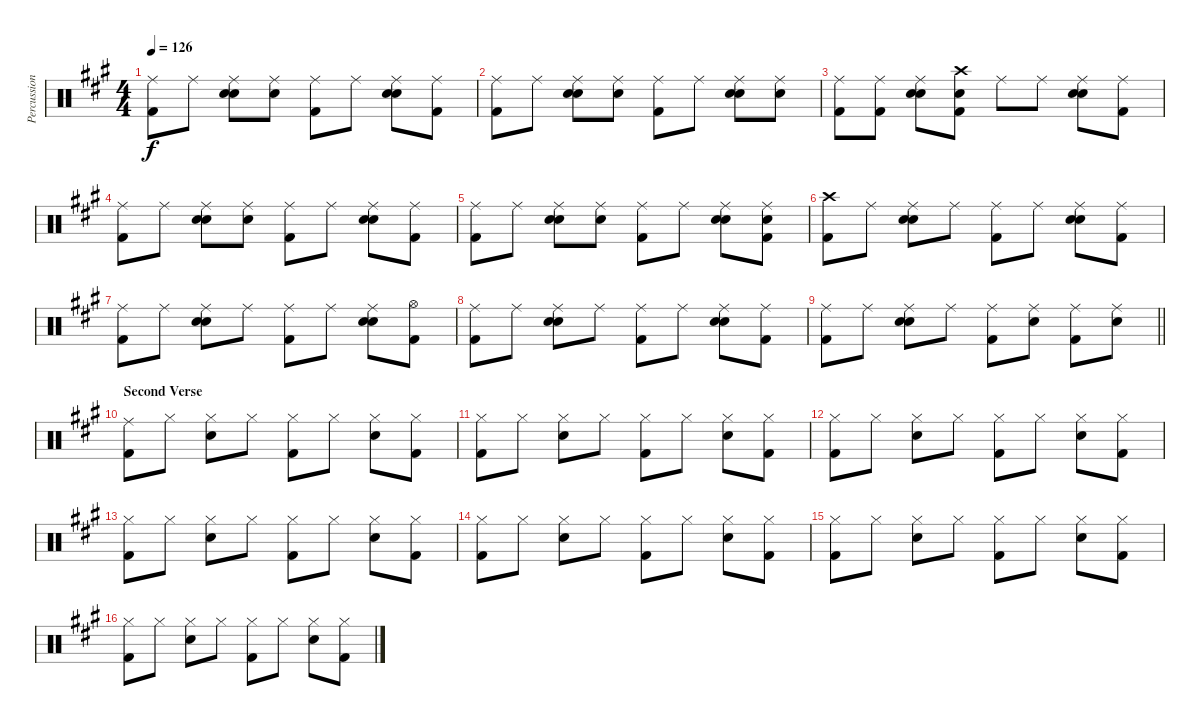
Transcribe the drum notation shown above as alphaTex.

\track ("Percussion" "Percussion") {instrument percussion}
\staff {score}
\articulation defaults
\ts (4 4)
\tempo 126
\clef neutral
\ks a
("Ride (middle)" "Kick (hit) 2").8{dy f} "Ride (middle)".8 ("Ride (middle)" "Hand Clap (hit)" "Snare (hit) 2").8 ("Ride (middle)" "Hand Clap (hit)").8 ("Ride (middle)" "Kick (hit) 2").8 "Ride (middle)".8 ("Ride (middle)" "Hand Clap (hit)" "Snare (hit) 2").8 ("Ride (middle)" "Kick (hit) 2").8 |
("Ride (middle)" "Kick (hit) 2").8 "Ride (middle)".8 ("Ride (middle)" "Hand Clap (hit)" "Snare (hit) 2").8 ("Ride (middle)" "Hand Clap (hit)").8 ("Ride (middle)" "Kick (hit) 2").8 "Ride (middle)".8 ("Ride (middle)" "Hand Clap (hit)" "Snare (hit) 2").8 ("Ride (middle)" "Snare (hit) 2").8 |
("Ride (middle)" "Kick (hit) 2").8 ("Ride (middle)" "Kick (hit) 2").8 ("Ride (middle)" "Hand Clap (hit)" "Snare (hit) 2").8 ("Crash high (hit)" "Hand Clap (hit)" "Kick (hit) 2").8 "Ride (middle)".8 "Ride (middle)".8 ("Ride (middle)" "Hand Clap (hit)" "Snare (hit) 2").8 ("Ride (middle)" "Kick (hit) 2").8 |
("Ride (middle)" "Kick (hit) 2").8 "Ride (middle)".8 ("Ride (middle)" "Hand Clap (hit)" "Snare (hit) 2").8 ("Ride (middle)" "Hand Clap (hit)").8 ("Ride (middle)" "Kick (hit) 2").8 "Ride (middle)".8 ("Ride (middle)" "Hand Clap (hit)" "Snare (hit) 2").8 ("Ride (middle)" "Kick (hit) 2").8 |
("Ride (middle)" "Kick (hit) 2").8 "Ride (middle)".8 ("Ride (middle)" "Hand Clap (hit)" "Snare (hit) 2").8 ("Ride (middle)" "Hand Clap (hit)").8 ("Ride (middle)" "Kick (hit) 2").8 "Ride (middle)".8 ("Ride (middle)" "Hand Clap (hit)" "Snare (hit) 2").8 ("Ride (middle)" "Hand Clap (hit)" "Kick (hit) 2").8 |
("Crash high (hit)" "Kick (hit) 2").8 "Ride (middle)".8 ("Ride (middle)" "Hand Clap (hit)" "Snare (hit) 2").8 "Ride (middle)".8 ("Ride (middle)" "Kick (hit) 2").8 "Ride (middle)".8 ("Ride (middle)" "Hand Clap (hit)" "Snare (hit) 2").8 ("Ride (middle)" "Kick (hit) 2").8 |
("Ride (middle)" "Kick (hit) 2").8 "Ride (middle)".8 ("Ride (middle)" "Hand Clap (hit)" "Snare (hit) 2").8 "Ride (middle)".8 ("Ride (middle)" "Kick (hit) 2").8 "Ride (middle)".8 ("Ride (middle)" "Hand Clap (hit)" "Snare (hit) 2").8 ("Hi-Hat (open)" "Kick (hit) 2").8 |
("Ride (middle)" "Kick (hit) 2").8 "Ride (middle)".8 ("Ride (middle)" "Hand Clap (hit)" "Snare (hit) 2").8 "Ride (middle)".8 ("Ride (middle)" "Kick (hit) 2").8 "Ride (middle)".8 ("Ride (middle)" "Hand Clap (hit)" "Snare (hit) 2").8 ("Ride (middle)" "Kick (hit) 2").8 |
\barLineRight lightlight
("Ride (middle)" "Kick (hit) 2").8 "Ride (middle)".8 ("Ride (middle)" "Hand Clap (hit)" "Snare (hit) 2").8 "Ride (middle)".8 ("Ride (middle)" "Kick (hit) 2").8 ("Ride (middle)" "Snare (hit) 2").8 ("Ride (middle)" "Kick (hit) 2").8 ("Ride (middle)" "Snare (hit) 2").8 |
\section ("" "Second Verse")
("Ride (middle)" "Kick (hit) 2").8 "Hi-Hat (closed)".8 ("Hi-Hat (closed)" "Snare (hit) 2").8 "Hi-Hat (closed)".8 ("Hi-Hat (closed)" "Kick (hit) 2").8 "Hi-Hat (closed)".8 ("Hi-Hat (closed)" "Snare (hit) 2").8 ("Hi-Hat (closed)" "Kick (hit) 2").8 |
("Hi-Hat (closed)" "Kick (hit) 2").8 "Hi-Hat (closed)".8 ("Hi-Hat (closed)" "Snare (hit) 2").8 "Hi-Hat (closed)".8 ("Hi-Hat (closed)" "Kick (hit) 2").8 "Hi-Hat (closed)".8 ("Hi-Hat (closed)" "Snare (hit) 2").8 ("Hi-Hat (closed)" "Kick (hit) 2").8 |
("Hi-Hat (closed)" "Kick (hit) 2").8 "Hi-Hat (closed)".8 ("Hi-Hat (closed)" "Snare (hit) 2").8 "Hi-Hat (closed)".8 ("Hi-Hat (closed)" "Kick (hit) 2").8 "Hi-Hat (closed)".8 ("Hi-Hat (closed)" "Snare (hit) 2").8 ("Hi-Hat (closed)" "Kick (hit) 2").8 |
("Hi-Hat (closed)" "Kick (hit) 2").8 "Hi-Hat (closed)".8 ("Hi-Hat (closed)" "Snare (hit) 2").8 "Hi-Hat (closed)".8 ("Hi-Hat (closed)" "Kick (hit) 2").8 "Hi-Hat (closed)".8 ("Hi-Hat (closed)" "Snare (hit) 2").8 ("Hi-Hat (closed)" "Kick (hit) 2").8 |
("Hi-Hat (closed)" "Kick (hit) 2").8 "Hi-Hat (closed)".8 ("Hi-Hat (closed)" "Snare (hit) 2").8 "Hi-Hat (closed)".8 ("Hi-Hat (closed)" "Kick (hit) 2").8 "Hi-Hat (closed)".8 ("Hi-Hat (closed)" "Snare (hit) 2").8 ("Hi-Hat (closed)" "Kick (hit) 2").8 |
("Hi-Hat (closed)" "Kick (hit) 2").8 "Hi-Hat (closed)".8 ("Hi-Hat (closed)" "Snare (hit) 2").8 "Hi-Hat (closed)".8 ("Hi-Hat (closed)" "Kick (hit) 2").8 "Hi-Hat (closed)".8 ("Hi-Hat (closed)" "Snare (hit) 2").8 ("Hi-Hat (closed)" "Kick (hit) 2").8 |
("Hi-Hat (closed)" "Kick (hit) 2").8 "Hi-Hat (closed)".8 ("Hi-Hat (closed)" "Snare (hit) 2").8 "Hi-Hat (closed)".8 ("Hi-Hat (closed)" "Kick (hit) 2").8 "Hi-Hat (closed)".8 ("Hi-Hat (closed)" "Snare (hit) 2").8 ("Hi-Hat (closed)" "Kick (hit) 2").8
